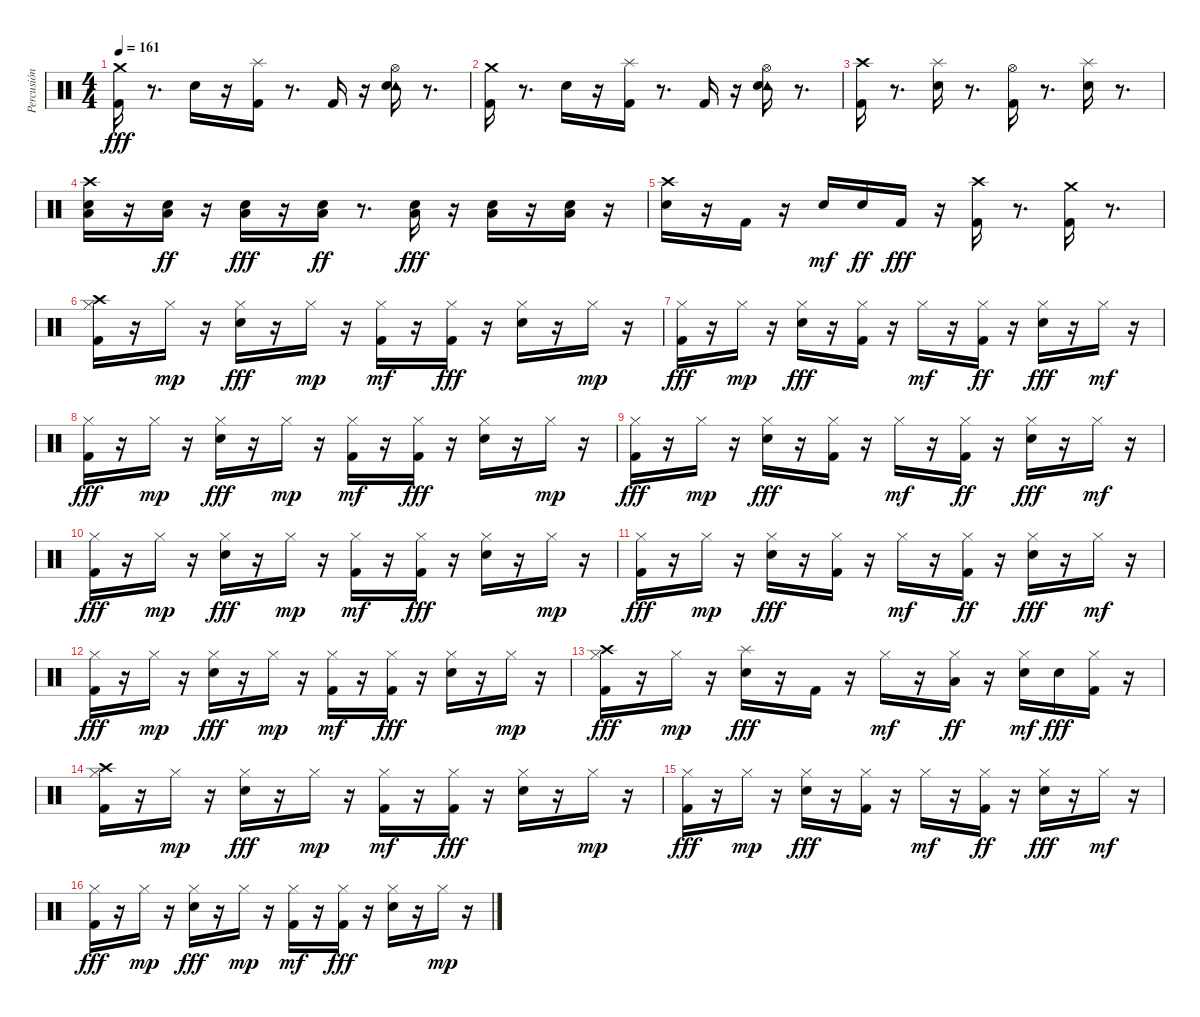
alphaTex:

\track ("Percusión" "Percusión") {instrument percussion}
\staff {score}
\articulation defaults
\ts (4 4)
\tempo 161
\clef neutral
\ks c
("Crash medium (hit)" "Kick (hit) 2").16{dy fff} r.8{d} "Snare (hit) 2".16 r.16 ("Splash (hit)" "Kick (hit) 2").16 r.8{d} "Kick (hit) 2".16 r.16 ("Hi-Hat (open)" "Tambourine (hit)" "Snare (hit) 2").16 r.8{d} |
("Crash medium (hit)" "Kick (hit) 2").16 r.8{d} "Snare (hit) 2".16 r.16 ("Splash (hit)" "Kick (hit) 2").16 r.8{d} "Kick (hit) 2".16 r.16 ("Hi-Hat (open)" "Tambourine (hit)" "Snare (hit) 2").16 r.8{d} |
("Crash high (hit)" "Kick (hit) 2").16 r.8{d} ("Splash (hit)" "Snare (hit) 2").16 r.8{d} ("Hi-Hat (open)" "Kick (hit) 2").16 r.8{d} ("Splash (hit)" "Snare (hit) 2").16 r.8{d} |
("Crash high (hit)" "Low Floor Tom (hit)" "Snare (hit) 2").16 r.16 ("Low Floor Tom (hit)" "Snare (hit) 2").16{dy ff} r.16 ("Low Floor Tom (hit)" "Snare (hit) 2").16{dy fff} r.16 ("Low Floor Tom (hit)" "Snare (hit) 2").16{dy ff} r.8{d} ("Low Floor Tom (hit)" "Snare (hit) 2").16{dy fff} r.16 ("Low Floor Tom (hit)" "Snare (hit) 2").16 r.16 ("Low Floor Tom (hit)" "Snare (hit) 2").16 r.16 |
("Crash high (hit)" "Snare (hit) 2").16 r.16 "Kick (hit) 2".16 r.16 "Snare (hit) 2".16{dy mf} "Snare (hit) 2".16{dy ff} "Kick (hit) 2".16{dy fff} r.16 ("Crash high (hit)" "Kick (hit) 2").16 r.8{d} ("Crash medium (hit)" "Kick (hit) 2").16 r.8{d} |
("Hi-Hat (closed)" "Crash high (hit)" "Kick (hit) 2").16 r.16 "Hi-Hat (closed)".16{dy mp} r.16 ("Hi-Hat (closed)" "Snare (hit) 2").16{dy fff} r.16 "Hi-Hat (closed)".16{dy mp} r.16 ("Hi-Hat (closed)" "Kick (hit) 2").16{dy mf} r.16 ("Hi-Hat (closed)" "Kick (hit) 2").16{dy fff} r.16 ("Hi-Hat (closed)" "Snare (hit) 2").16 r.16 "Hi-Hat (closed)".16{dy mp} r.16 |
("Hi-Hat (closed)" "Kick (hit) 2").16{dy fff} r.16 "Hi-Hat (closed)".16{dy mp} r.16 ("Hi-Hat (closed)" "Snare (hit) 2").16{dy fff} r.16 ("Hi-Hat (closed)" "Kick (hit) 2").16 r.16 "Hi-Hat (closed)".16{dy mf} r.16 ("Hi-Hat (closed)" "Kick (hit) 2").16{dy ff} r.16 ("Hi-Hat (closed)" "Snare (hit) 2").16{dy fff} r.16 "Hi-Hat (closed)".16{dy mf} r.16 |
("Hi-Hat (closed)" "Kick (hit) 2").16{dy fff} r.16 "Hi-Hat (closed)".16{dy mp} r.16 ("Hi-Hat (closed)" "Snare (hit) 2").16{dy fff} r.16 "Hi-Hat (closed)".16{dy mp} r.16 ("Hi-Hat (closed)" "Kick (hit) 2").16{dy mf} r.16 ("Hi-Hat (closed)" "Kick (hit) 2").16{dy fff} r.16 ("Hi-Hat (closed)" "Snare (hit) 2").16 r.16 "Hi-Hat (closed)".16{dy mp} r.16 |
("Hi-Hat (closed)" "Kick (hit) 2").16{dy fff} r.16 "Hi-Hat (closed)".16{dy mp} r.16 ("Hi-Hat (closed)" "Snare (hit) 2").16{dy fff} r.16 ("Hi-Hat (closed)" "Kick (hit) 2").16 r.16 "Hi-Hat (closed)".16{dy mf} r.16 ("Hi-Hat (closed)" "Kick (hit) 2").16{dy ff} r.16 ("Hi-Hat (closed)" "Snare (hit) 2").16{dy fff} r.16 "Hi-Hat (closed)".16{dy mf} r.16 |
("Hi-Hat (closed)" "Kick (hit) 2").16{dy fff} r.16 "Hi-Hat (closed)".16{dy mp} r.16 ("Hi-Hat (closed)" "Snare (hit) 2").16{dy fff} r.16 "Hi-Hat (closed)".16{dy mp} r.16 ("Hi-Hat (closed)" "Kick (hit) 2").16{dy mf} r.16 ("Hi-Hat (closed)" "Kick (hit) 2").16{dy fff} r.16 ("Hi-Hat (closed)" "Snare (hit) 2").16 r.16 "Hi-Hat (closed)".16{dy mp} r.16 |
("Hi-Hat (closed)" "Kick (hit) 2").16{dy fff} r.16 "Hi-Hat (closed)".16{dy mp} r.16 ("Hi-Hat (closed)" "Snare (hit) 2").16{dy fff} r.16 ("Hi-Hat (closed)" "Kick (hit) 2").16 r.16 "Hi-Hat (closed)".16{dy mf} r.16 ("Hi-Hat (closed)" "Kick (hit) 2").16{dy ff} r.16 ("Hi-Hat (closed)" "Snare (hit) 2").16{dy fff} r.16 "Hi-Hat (closed)".16{dy mf} r.16 |
("Hi-Hat (closed)" "Kick (hit) 2").16{dy fff} r.16 "Hi-Hat (closed)".16{dy mp} r.16 ("Hi-Hat (closed)" "Snare (hit) 2").16{dy fff} r.16 "Hi-Hat (closed)".16{dy mp} r.16 ("Hi-Hat (closed)" "Kick (hit) 2").16{dy mf} r.16 ("Hi-Hat (closed)" "Kick (hit) 2").16{dy fff} r.16 ("Hi-Hat (closed)" "Snare (hit) 2").16 r.16 "Hi-Hat (closed)".16{dy mp} r.16 |
("Hi-Hat (closed)" "Crash high (hit)" "Kick (hit) 2").16{dy fff} r.16 "Hi-Hat (closed)".16{dy mp} r.16 ("Splash (hit)" "Snare (hit) 2").16{dy fff} r.16 "Kick (hit) 2".16 r.16 "Hi-Hat (closed)".16{dy mf} r.16 ("Hi-Hat (closed)" "Low Tom (hit)").16{dy ff} r.16 ("Hi-Hat (closed)" "Snare (hit) 2").16{dy mf} "Snare (hit) 2".16{dy fff} ("Hi-Hat (closed)" "Kick (hit) 2").16 r.16 |
("Hi-Hat (closed)" "Crash high (hit)" "Kick (hit) 2").16 r.16 "Hi-Hat (closed)".16{dy mp} r.16 ("Hi-Hat (closed)" "Snare (hit) 2").16{dy fff} r.16 "Hi-Hat (closed)".16{dy mp} r.16 ("Hi-Hat (closed)" "Kick (hit) 2").16{dy mf} r.16 ("Hi-Hat (closed)" "Kick (hit) 2").16{dy fff} r.16 ("Hi-Hat (closed)" "Snare (hit) 2").16 r.16 "Hi-Hat (closed)".16{dy mp} r.16 |
("Hi-Hat (closed)" "Kick (hit) 2").16{dy fff} r.16 "Hi-Hat (closed)".16{dy mp} r.16 ("Hi-Hat (closed)" "Snare (hit) 2").16{dy fff} r.16 ("Hi-Hat (closed)" "Kick (hit) 2").16 r.16 "Hi-Hat (closed)".16{dy mf} r.16 ("Hi-Hat (closed)" "Kick (hit) 2").16{dy ff} r.16 ("Hi-Hat (closed)" "Snare (hit) 2").16{dy fff} r.16 "Hi-Hat (closed)".16{dy mf} r.16 |
("Hi-Hat (closed)" "Kick (hit) 2").16{dy fff} r.16 "Hi-Hat (closed)".16{dy mp} r.16 ("Hi-Hat (closed)" "Snare (hit) 2").16{dy fff} r.16 "Hi-Hat (closed)".16{dy mp} r.16 ("Hi-Hat (closed)" "Kick (hit) 2").16{dy mf} r.16 ("Hi-Hat (closed)" "Kick (hit) 2").16{dy fff} r.16 ("Hi-Hat (closed)" "Snare (hit) 2").16 r.16 "Hi-Hat (closed)".16{dy mp} r.16
